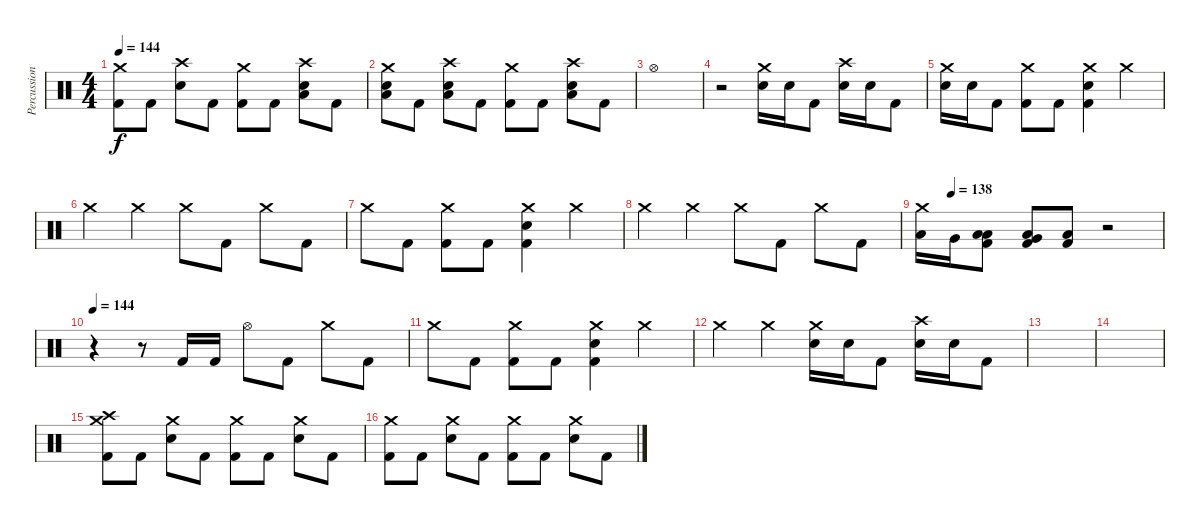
\track ("Percussion" "Percussion") {instrument percussion}
\staff {score}
\articulation defaults
\ts (4 4)
\tempo 144
\clef neutral
\ks c
("Crash medium (hit)" "Kick (hit) 2").8{dy f} "Kick (hit) 2".8 ("Crash high (hit)" "Electric Snare (hit)").8 "Kick (hit) 2".8 ("Crash medium (hit)" "Kick (hit) 2").8 "Kick (hit) 2".8 ("Crash high (hit)" "Electric Snare (hit)" "Low Floor Tom (hit)").8 "Kick (hit) 2".8 |
("Crash medium (hit)" "Electric Snare (hit)" "Low Floor Tom (hit)").8 "Kick (hit) 2".8 ("Crash high (hit)" "Electric Snare (hit)" "Low Floor Tom (hit)").8 "Kick (hit) 2".8 ("Crash medium (hit)" "Kick (hit) 2").8 "Kick (hit) 2".8 ("Crash high (hit)" "Electric Snare (hit)" "Low Floor Tom (hit)").8 "Kick (hit) 2".8 |
"Hi-Hat (open)".1 |
r.2 ("Crash medium (hit)" "Electric Snare (hit)").16 "Electric Snare (hit)".16 "Kick (hit) 2".8 ("Crash high (hit)" "Electric Snare (hit)").16 "Electric Snare (hit)".16 "Kick (hit) 2".8 |
("Crash medium (hit)" "Electric Snare (hit)").16 "Electric Snare (hit)".16 "Kick (hit) 2".8 ("Crash medium (hit)" "Kick (hit) 2").8 "Kick (hit) 2".8 ("Crash medium (hit)" "Electric Snare (hit)" "Kick (hit) 2").4 "Crash medium (hit)".4 |
"Crash medium (hit)".4 "Crash medium (hit)".4 "Crash medium (hit)".8 "Kick (hit) 2".8 "Crash medium (hit)".8 "Kick (hit) 2".8 |
"Crash medium (hit)".8 "Kick (hit) 2".8 ("Crash medium (hit)" "Kick (hit) 2").8 "Kick (hit) 2".8 ("Crash medium (hit)" "Electric Snare (hit)" "Kick (hit) 2").4 "Crash medium (hit)".4 |
"Crash medium (hit)".4 "Crash medium (hit)".4 "Crash medium (hit)".8 "Kick (hit) 2".8 "Crash medium (hit)".8 "Kick (hit) 2".8 |
\tempo (138 0.125)
("Crash medium (hit)" "Low Tom (hit)").16 "Very Low Tom (hit)".16 ("Low Tom (hit)" "Low Floor Tom (hit)" "Kick (hit) 2").8 ("Very Low Tom (hit)" "Low Floor Tom (hit)" "Kick (hit) 2").8 ("Low Tom (hit)" "Kick (hit) 2").8 r.2 |
\tempo 144
r.4 r.8 "Kick (hit) 2".16 "Kick (hit) 2".16 "Hi-Hat (open)".8 "Kick (hit) 2".8 "Crash medium (hit)".8 "Kick (hit) 2".8 |
"Crash medium (hit)".8 "Kick (hit) 2".8 ("Crash medium (hit)" "Kick (hit) 2").8 "Kick (hit) 2".8 ("Crash medium (hit)" "Electric Snare (hit)" "Kick (hit) 2").4 "Crash medium (hit)".4 |
"Crash medium (hit)".4 "Crash medium (hit)".4 ("Crash medium (hit)" "Electric Snare (hit)").16 "Electric Snare (hit)".16 "Kick (hit) 2".8 ("Crash high (hit)" "Electric Snare (hit)").16 "Electric Snare (hit)".16 "Kick (hit) 2".8 |
|
|
("Crash medium (hit)" "Crash high (hit)" "Kick (hit) 2").8{volume 13} "Kick (hit) 2".8 ("Crash medium (hit)" "Electric Snare (hit)").8 "Kick (hit) 2".8 ("Crash medium (hit)" "Kick (hit) 2").8 "Kick (hit) 2".8 ("Crash medium (hit)" "Electric Snare (hit)").8 "Kick (hit) 2".8 |
("Crash medium (hit)" "Kick (hit) 2").8 "Kick (hit) 2".8 ("Crash medium (hit)" "Electric Snare (hit)").8 "Kick (hit) 2".8 ("Crash medium (hit)" "Kick (hit) 2").8 "Kick (hit) 2".8 ("Crash medium (hit)" "Electric Snare (hit)").8 "Kick (hit) 2".8
